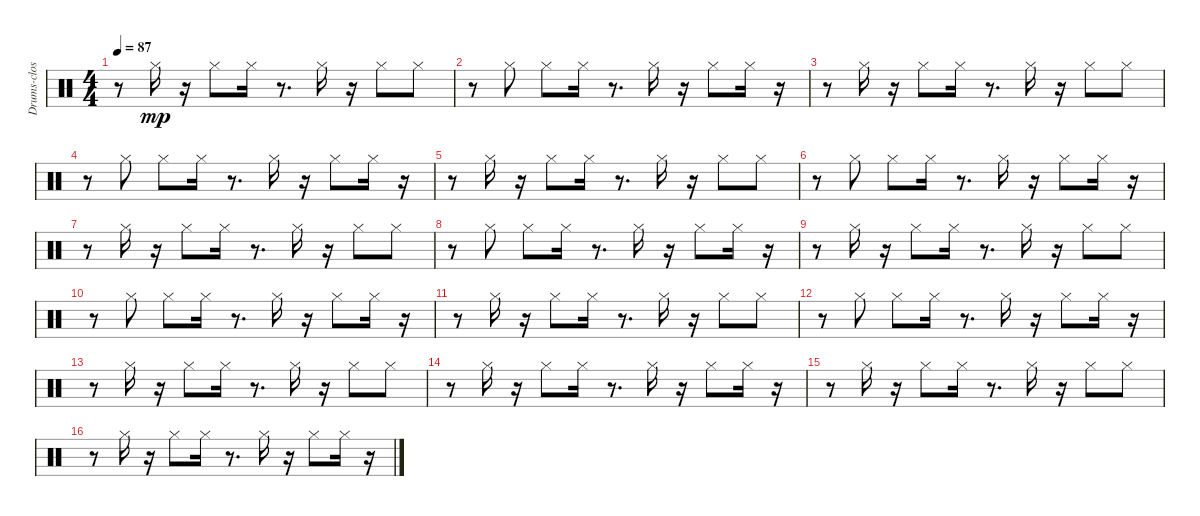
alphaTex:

\track ("Drums-closed hi-hat" "Drums-clos") {instrument percussion}
\staff {score}
\articulation defaults
\ts (4 4)
\tempo 87
\clef neutral
\ks c
r.8{dy mp} "Hi-Hat (closed)".16 r.16 "Hi-Hat (closed)".8 "Hi-Hat (closed)".16 r.8{d} "Hi-Hat (closed)".16 r.16 "Hi-Hat (closed)".8 "Hi-Hat (closed)".8 |
r.8 "Hi-Hat (closed)".8 "Hi-Hat (closed)".8 "Hi-Hat (closed)".16 r.8{d} "Hi-Hat (closed)".16 r.16 "Hi-Hat (closed)".8 "Hi-Hat (closed)".16 r.16 |
r.8 "Hi-Hat (closed)".16 r.16 "Hi-Hat (closed)".8 "Hi-Hat (closed)".16 r.8{d} "Hi-Hat (closed)".16 r.16 "Hi-Hat (closed)".8 "Hi-Hat (closed)".8 |
r.8 "Hi-Hat (closed)".8 "Hi-Hat (closed)".8 "Hi-Hat (closed)".16 r.8{d} "Hi-Hat (closed)".16 r.16 "Hi-Hat (closed)".8 "Hi-Hat (closed)".16 r.16 |
r.8 "Hi-Hat (closed)".16 r.16 "Hi-Hat (closed)".8 "Hi-Hat (closed)".16 r.8{d} "Hi-Hat (closed)".16 r.16 "Hi-Hat (closed)".8 "Hi-Hat (closed)".8 |
r.8 "Hi-Hat (closed)".8 "Hi-Hat (closed)".8 "Hi-Hat (closed)".16 r.8{d} "Hi-Hat (closed)".16 r.16 "Hi-Hat (closed)".8 "Hi-Hat (closed)".16 r.16 |
r.8 "Hi-Hat (closed)".16 r.16 "Hi-Hat (closed)".8 "Hi-Hat (closed)".16 r.8{d} "Hi-Hat (closed)".16 r.16 "Hi-Hat (closed)".8 "Hi-Hat (closed)".8 |
r.8 "Hi-Hat (closed)".8 "Hi-Hat (closed)".8 "Hi-Hat (closed)".16 r.8{d} "Hi-Hat (closed)".16 r.16 "Hi-Hat (closed)".8 "Hi-Hat (closed)".16 r.16 |
r.8 "Hi-Hat (closed)".16 r.16 "Hi-Hat (closed)".8 "Hi-Hat (closed)".16 r.8{d} "Hi-Hat (closed)".16 r.16 "Hi-Hat (closed)".8 "Hi-Hat (closed)".8 |
r.8 "Hi-Hat (closed)".8 "Hi-Hat (closed)".8 "Hi-Hat (closed)".16 r.8{d} "Hi-Hat (closed)".16 r.16 "Hi-Hat (closed)".8 "Hi-Hat (closed)".16 r.16 |
r.8 "Hi-Hat (closed)".16 r.16 "Hi-Hat (closed)".8 "Hi-Hat (closed)".16 r.8{d} "Hi-Hat (closed)".16 r.16 "Hi-Hat (closed)".8 "Hi-Hat (closed)".8 |
r.8 "Hi-Hat (closed)".8 "Hi-Hat (closed)".8 "Hi-Hat (closed)".16 r.8{d} "Hi-Hat (closed)".16 r.16 "Hi-Hat (closed)".8 "Hi-Hat (closed)".16 r.16 |
r.8 "Hi-Hat (closed)".16 r.16 "Hi-Hat (closed)".8 "Hi-Hat (closed)".16 r.8{d} "Hi-Hat (closed)".16 r.16 "Hi-Hat (closed)".8 "Hi-Hat (closed)".8 |
r.8 "Hi-Hat (closed)".16 r.16 "Hi-Hat (closed)".8 "Hi-Hat (closed)".16 r.8{d} "Hi-Hat (closed)".16 r.16 "Hi-Hat (closed)".8 "Hi-Hat (closed)".16 r.16 |
r.8 "Hi-Hat (closed)".16 r.16 "Hi-Hat (closed)".8 "Hi-Hat (closed)".16 r.8{d} "Hi-Hat (closed)".16 r.16 "Hi-Hat (closed)".8 "Hi-Hat (closed)".8 |
r.8 "Hi-Hat (closed)".16 r.16 "Hi-Hat (closed)".8 "Hi-Hat (closed)".16 r.8{d} "Hi-Hat (closed)".16 r.16 "Hi-Hat (closed)".8 "Hi-Hat (closed)".16 r.16
